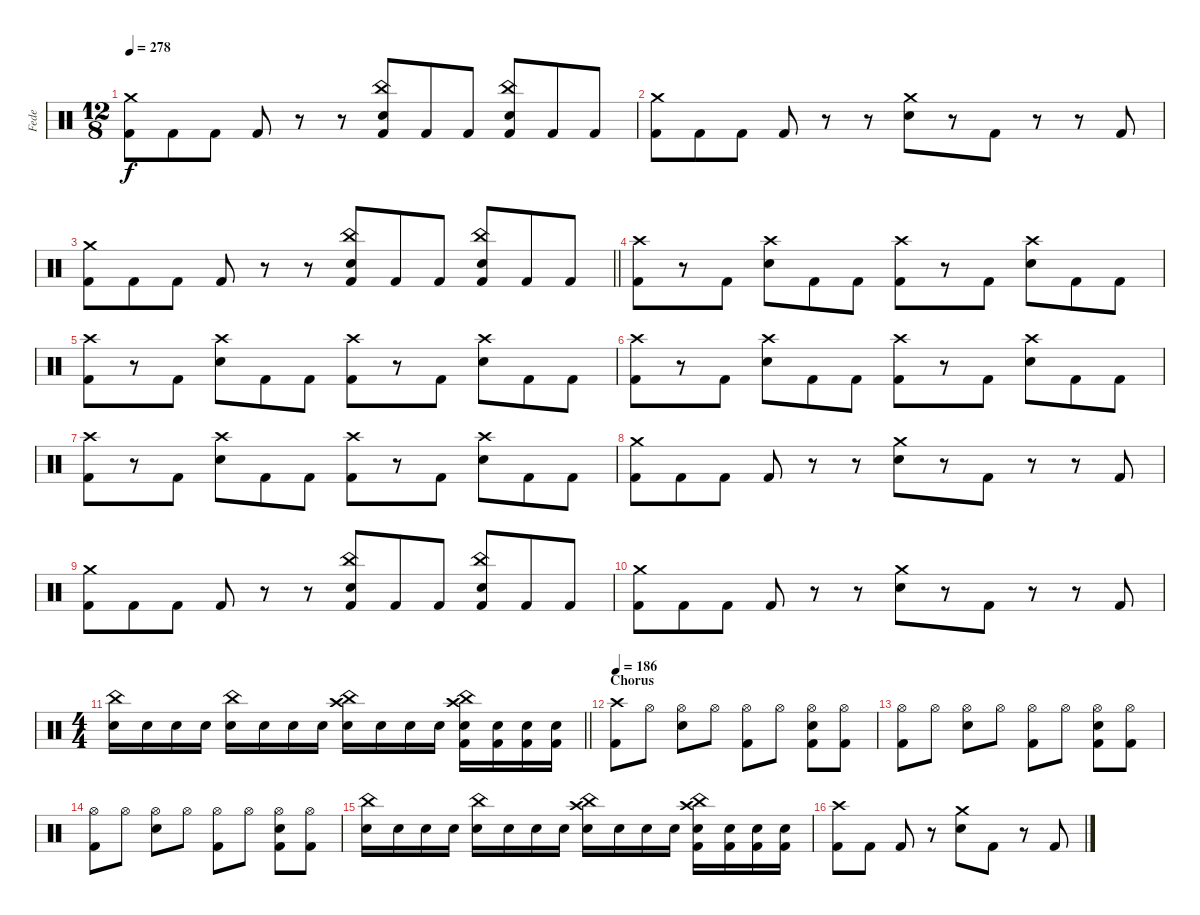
\track ("Fede" "Fede") {instrument percussion}
\staff {score}
\articulation defaults
\ts (12 8)
\tempo 278
\clef neutral
\ks c
("Crash medium (hit)" "Kick (hit) 2").8{dy f} "Kick (hit) 2".8 "Kick (hit) 2".8 "Kick (hit) 2".8 r.8 r.8 ("China (hit)" "Snare (hit) 2" "Kick (hit) 2").8 "Kick (hit) 2".8 "Kick (hit) 2".8 ("China (hit)" "Snare (hit) 2" "Kick (hit) 2").8 "Kick (hit) 2".8 "Kick (hit) 2".8 |
("Crash medium (hit)" "Kick (hit) 2").8 "Kick (hit) 2".8 "Kick (hit) 2".8 "Kick (hit) 2".8 r.8 r.8 ("Crash medium (hit)" "Snare (hit) 2").8 r.8 "Kick (hit) 2".8 r.8 r.8 "Kick (hit) 2".8 |
\barLineRight lightlight
("Crash medium (hit)" "Kick (hit) 2").8 "Kick (hit) 2".8 "Kick (hit) 2".8 "Kick (hit) 2".8 r.8 r.8 ("China (hit)" "Snare (hit) 2" "Kick (hit) 2").8 "Kick (hit) 2".8 "Kick (hit) 2".8 ("China (hit)" "Snare (hit) 2" "Kick (hit) 2").8 "Kick (hit) 2".8 "Kick (hit) 2".8 |
("Crash high (hit)" "Kick (hit) 2").8 r.8 "Kick (hit) 2".8 ("Crash high (hit)" "Snare (hit) 2").8 "Kick (hit) 2".8 "Kick (hit) 2".8 ("Crash high (hit)" "Kick (hit) 2").8 r.8 "Kick (hit) 2".8 ("Crash high (hit)" "Snare (hit) 2").8 "Kick (hit) 2".8 "Kick (hit) 2".8 |
("Crash high (hit)" "Kick (hit) 2").8 r.8 "Kick (hit) 2".8 ("Crash high (hit)" "Snare (hit) 2").8 "Kick (hit) 2".8 "Kick (hit) 2".8 ("Crash high (hit)" "Kick (hit) 2").8 r.8 "Kick (hit) 2".8 ("Crash high (hit)" "Snare (hit) 2").8 "Kick (hit) 2".8 "Kick (hit) 2".8 |
("Crash high (hit)" "Kick (hit) 2").8 r.8 "Kick (hit) 2".8 ("Crash high (hit)" "Snare (hit) 2").8 "Kick (hit) 2".8 "Kick (hit) 2".8 ("Crash high (hit)" "Kick (hit) 2").8 r.8 "Kick (hit) 2".8 ("Crash high (hit)" "Snare (hit) 2").8 "Kick (hit) 2".8 "Kick (hit) 2".8 |
("Crash high (hit)" "Kick (hit) 2").8 r.8 "Kick (hit) 2".8 ("Crash high (hit)" "Snare (hit) 2").8 "Kick (hit) 2".8 "Kick (hit) 2".8 ("Crash high (hit)" "Kick (hit) 2").8 r.8 "Kick (hit) 2".8 ("Crash high (hit)" "Snare (hit) 2").8 "Kick (hit) 2".8 "Kick (hit) 2".8 |
("Crash medium (hit)" "Kick (hit) 2").8 "Kick (hit) 2".8 "Kick (hit) 2".8 "Kick (hit) 2".8 r.8 r.8 ("Crash medium (hit)" "Snare (hit) 2").8 r.8 "Kick (hit) 2".8 r.8 r.8 "Kick (hit) 2".8 |
("Crash medium (hit)" "Kick (hit) 2").8 "Kick (hit) 2".8 "Kick (hit) 2".8 "Kick (hit) 2".8 r.8 r.8 ("China (hit)" "Snare (hit) 2" "Kick (hit) 2").8 "Kick (hit) 2".8 "Kick (hit) 2".8 ("China (hit)" "Snare (hit) 2" "Kick (hit) 2").8 "Kick (hit) 2".8 "Kick (hit) 2".8 |
("Crash medium (hit)" "Kick (hit) 2").8 "Kick (hit) 2".8 "Kick (hit) 2".8 "Kick (hit) 2".8 r.8 r.8 ("Crash medium (hit)" "Snare (hit) 2").8 r.8 "Kick (hit) 2".8 r.8 r.8 "Kick (hit) 2".8 |
\ts (4 4)
\barLineRight lightlight
("China (hit)" "Snare (hit) 2").16 "Electric Snare (hit)".16 "Electric Snare (hit)".16 "Electric Snare (hit)".16 ("China (hit)" "Snare (hit) 2").16 "Electric Snare (hit)".16 "Electric Snare (hit)".16 "Electric Snare (hit)".16 ("China (hit)" "Snare (hit) 2" "Crash high (hit)").16 "Electric Snare (hit)".16 "Electric Snare (hit)".16 "Electric Snare (hit)".16 ("China (hit)" "Snare (hit) 2" "Crash high (hit)" "Kick (hit) 2").16 ("Electric Snare (hit)" "Kick (hit) 2").16 ("Electric Snare (hit)" "Kick (hit) 2").16 ("Electric Snare (hit)" "Kick (hit) 2").16 |
\section ("" "Chorus")
\tempo 186
("Crash high (hit)" "Kick (hit) 2").8 "Hi-Hat (open)".8 ("Hi-Hat (open)" "Snare (hit) 2").8 "Hi-Hat (open)".8 ("Hi-Hat (open)" "Kick (hit) 2").8 "Hi-Hat (open)".8 ("Hi-Hat (open)" "Snare (hit) 2" "Kick (hit) 2").8 ("Hi-Hat (open)" "Kick (hit) 2").8 |
("Hi-Hat (open)" "Kick (hit) 2").8 "Hi-Hat (open)".8 ("Hi-Hat (open)" "Snare (hit) 2").8 "Hi-Hat (open)".8 ("Hi-Hat (open)" "Kick (hit) 2").8 "Hi-Hat (open)".8 ("Hi-Hat (open)" "Snare (hit) 2" "Kick (hit) 2").8 ("Hi-Hat (open)" "Kick (hit) 2").8 |
("Hi-Hat (open)" "Kick (hit) 2").8 "Hi-Hat (open)".8 ("Hi-Hat (open)" "Snare (hit) 2").8 "Hi-Hat (open)".8 ("Hi-Hat (open)" "Kick (hit) 2").8 "Hi-Hat (open)".8 ("Hi-Hat (open)" "Snare (hit) 2" "Kick (hit) 2").8 ("Hi-Hat (open)" "Kick (hit) 2").8 |
("China (hit)" "Snare (hit) 2").16 "Electric Snare (hit)".16 "Electric Snare (hit)".16 "Electric Snare (hit)".16 ("China (hit)" "Snare (hit) 2").16 "Electric Snare (hit)".16 "Electric Snare (hit)".16 "Electric Snare (hit)".16 ("China (hit)" "Snare (hit) 2" "Crash high (hit)").16 "Electric Snare (hit)".16 "Electric Snare (hit)".16 "Electric Snare (hit)".16 ("China (hit)" "Snare (hit) 2" "Crash high (hit)" "Kick (hit) 2").16 ("Electric Snare (hit)" "Kick (hit) 2").16 ("Electric Snare (hit)" "Kick (hit) 2").16 ("Electric Snare (hit)" "Kick (hit) 2").16 |
("Crash high (hit)" "Kick (hit) 2").8 "Kick (hit) 2".8 "Kick (hit) 2".8 r.8 ("Crash medium (hit)" "Snare (hit) 2").8 "Kick (hit) 2".8 r.8 "Kick (hit) 2".8
